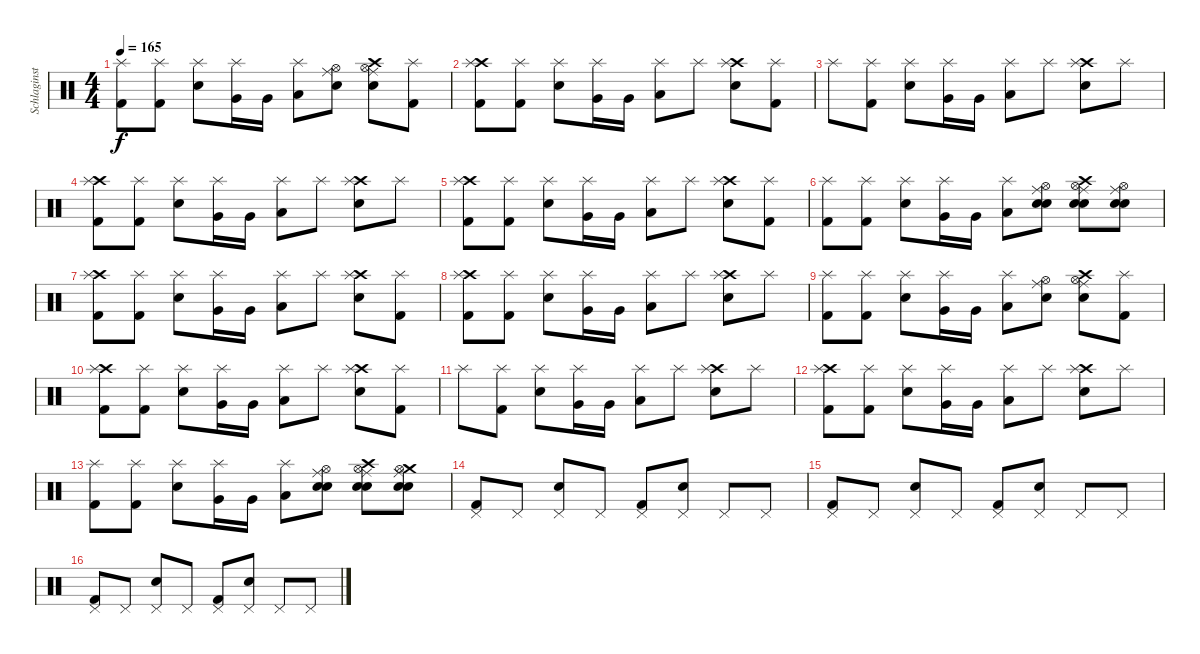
\track ("Schlaginstrumente - Auswahl" "Schlaginst") {instrument percussion}
\staff {score}
\articulation defaults
\ts (4 4)
\tempo 165
\clef neutral
\ks c
("Splash (hit)" "Kick (hit) 2").8{dy f} ("Splash (hit)" "Kick (hit) 2").8 ("Splash (hit)" "Electric Snare (hit)").8 ("Very Low Tom (hit)" "Splash (hit)").16 "Very Low Tom (hit)".16 ("Low Floor Tom (hit)" "Splash (hit)").8 ("Ride (middle)" "Hi-Hat (open)" "Electric Snare (hit)").8 ("Crash high (hit)" "Ride (middle)" "Hi-Hat (open)" "Electric Snare (hit)").8 ("Splash (hit)" "Kick (hit) 2").8 |
("Crash high (hit)" "Splash (hit)" "Kick (hit) 2").8 ("Splash (hit)" "Kick (hit) 2").8 ("Splash (hit)" "Electric Snare (hit)").8 ("Very Low Tom (hit)" "Splash (hit)").16 "Very Low Tom (hit)".16 ("Low Floor Tom (hit)" "Splash (hit)").8 "Splash (hit)".8 ("Crash high (hit)" "Splash (hit)" "Electric Snare (hit)").8 ("Splash (hit)" "Kick (hit) 2").8 |
"Splash (hit)".8 ("Splash (hit)" "Kick (hit) 2").8 ("Splash (hit)" "Electric Snare (hit)").8 ("Very Low Tom (hit)" "Splash (hit)").16 "Very Low Tom (hit)".16 ("Low Floor Tom (hit)" "Splash (hit)").8 "Splash (hit)".8 ("Crash high (hit)" "Splash (hit)" "Electric Snare (hit)").8 "Splash (hit)".8 |
("Crash high (hit)" "Splash (hit)" "Kick (hit) 2").8 ("Splash (hit)" "Kick (hit) 2").8 ("Splash (hit)" "Electric Snare (hit)").8 ("Very Low Tom (hit)" "Splash (hit)").16 "Very Low Tom (hit)".16 ("Low Floor Tom (hit)" "Splash (hit)").8 "Splash (hit)".8 ("Crash high (hit)" "Splash (hit)" "Electric Snare (hit)").8 "Splash (hit)".8 |
("Crash high (hit)" "Splash (hit)" "Kick (hit) 2").8 ("Splash (hit)" "Kick (hit) 2").8 ("Splash (hit)" "Electric Snare (hit)").8 ("Very Low Tom (hit)" "Splash (hit)").16 "Very Low Tom (hit)".16 ("Low Floor Tom (hit)" "Splash (hit)").8 "Splash (hit)".8 ("Crash high (hit)" "Splash (hit)" "Electric Snare (hit)").8 ("Splash (hit)" "Kick (hit) 2").8 |
("Splash (hit)" "Kick (hit) 2").8 ("Splash (hit)" "Kick (hit) 2").8 ("Splash (hit)" "Electric Snare (hit)").8 ("Very Low Tom (hit)" "Splash (hit)").16 "Very Low Tom (hit)".16 ("Low Floor Tom (hit)" "Splash (hit)").8 ("Ride (middle)" "Hand Clap (hit)" "Hi-Hat (open)" "Electric Snare (hit)").8 ("Crash high (hit)" "Ride (middle)" "Hand Clap (hit)" "Hi-Hat (open)" "Electric Snare (hit)").8 ("Ride (middle)" "Hand Clap (hit)" "Hi-Hat (open)" "Electric Snare (hit)").8 |
("Crash high (hit)" "Splash (hit)" "Kick (hit) 2").8 ("Splash (hit)" "Kick (hit) 2").8 ("Splash (hit)" "Electric Snare (hit)").8 ("Very Low Tom (hit)" "Splash (hit)").16 "Very Low Tom (hit)".16 ("Low Floor Tom (hit)" "Splash (hit)").8 "Splash (hit)".8 ("Crash high (hit)" "Splash (hit)" "Electric Snare (hit)").8 ("Splash (hit)" "Kick (hit) 2").8 |
("Crash high (hit)" "Splash (hit)" "Kick (hit) 2").8 ("Splash (hit)" "Kick (hit) 2").8 ("Splash (hit)" "Electric Snare (hit)").8 ("Very Low Tom (hit)" "Splash (hit)").16 "Very Low Tom (hit)".16 ("Low Floor Tom (hit)" "Splash (hit)").8 "Splash (hit)".8 ("Crash high (hit)" "Splash (hit)" "Electric Snare (hit)").8 "Splash (hit)".8 |
("Splash (hit)" "Kick (hit) 2").8 ("Splash (hit)" "Kick (hit) 2").8 ("Splash (hit)" "Electric Snare (hit)").8 ("Very Low Tom (hit)" "Splash (hit)").16 "Very Low Tom (hit)".16 ("Low Floor Tom (hit)" "Splash (hit)").8 ("Ride (middle)" "Hi-Hat (open)" "Electric Snare (hit)").8 ("Crash high (hit)" "Ride (middle)" "Hi-Hat (open)" "Electric Snare (hit)").8 ("Splash (hit)" "Kick (hit) 2").8 |
("Crash high (hit)" "Splash (hit)" "Kick (hit) 2").8 ("Splash (hit)" "Kick (hit) 2").8 ("Splash (hit)" "Electric Snare (hit)").8 ("Very Low Tom (hit)" "Splash (hit)").16 "Very Low Tom (hit)".16 ("Low Floor Tom (hit)" "Splash (hit)").8 "Splash (hit)".8 ("Crash high (hit)" "Splash (hit)" "Electric Snare (hit)").8 ("Splash (hit)" "Kick (hit) 2").8 |
"Splash (hit)".8 ("Splash (hit)" "Kick (hit) 2").8 ("Splash (hit)" "Electric Snare (hit)").8 ("Very Low Tom (hit)" "Splash (hit)").16 "Very Low Tom (hit)".16 ("Low Floor Tom (hit)" "Splash (hit)").8 "Splash (hit)".8 ("Crash high (hit)" "Splash (hit)" "Electric Snare (hit)").8 "Splash (hit)".8 |
("Crash high (hit)" "Splash (hit)" "Kick (hit) 2").8 ("Splash (hit)" "Kick (hit) 2").8 ("Splash (hit)" "Electric Snare (hit)").8 ("Very Low Tom (hit)" "Splash (hit)").16 "Very Low Tom (hit)".16 ("Low Floor Tom (hit)" "Splash (hit)").8 "Splash (hit)".8 ("Crash high (hit)" "Splash (hit)" "Electric Snare (hit)").8 "Splash (hit)".8 |
("Splash (hit)" "Kick (hit) 2").8 ("Splash (hit)" "Kick (hit) 2").8 ("Splash (hit)" "Electric Snare (hit)").8 ("Very Low Tom (hit)" "Splash (hit)").16 "Very Low Tom (hit)".16 ("Low Floor Tom (hit)" "Splash (hit)").8 ("Ride (middle)" "Hand Clap (hit)" "Hi-Hat (open)" "Electric Snare (hit)").8 ("Crash high (hit)" "Ride (middle)" "Hand Clap (hit)" "Hi-Hat (open)" "Electric Snare (hit)").8 ("Crash medium (hit)" "Ride (middle)" "Hand Clap (hit)" "Hi-Hat (open)" "Electric Snare (hit)").8 |
("Pedal Hi-Hat (hit)" "Kick (hit) 2").8 "Pedal Hi-Hat (hit)".8 ("Pedal Hi-Hat (hit)" "Electric Snare (hit)").8 "Pedal Hi-Hat (hit)".8 ("Pedal Hi-Hat (hit)" "Kick (hit) 2").8 ("Pedal Hi-Hat (hit)" "Electric Snare (hit)").8 "Pedal Hi-Hat (hit)".8 "Pedal Hi-Hat (hit)".8 |
("Pedal Hi-Hat (hit)" "Kick (hit) 2").8 "Pedal Hi-Hat (hit)".8 ("Pedal Hi-Hat (hit)" "Electric Snare (hit)").8 "Pedal Hi-Hat (hit)".8 ("Pedal Hi-Hat (hit)" "Kick (hit) 2").8 ("Pedal Hi-Hat (hit)" "Electric Snare (hit)").8 "Pedal Hi-Hat (hit)".8 "Pedal Hi-Hat (hit)".8 |
("Pedal Hi-Hat (hit)" "Kick (hit) 2").8 "Pedal Hi-Hat (hit)".8 ("Pedal Hi-Hat (hit)" "Electric Snare (hit)").8 "Pedal Hi-Hat (hit)".8 ("Pedal Hi-Hat (hit)" "Kick (hit) 2").8 ("Pedal Hi-Hat (hit)" "Electric Snare (hit)").8 "Pedal Hi-Hat (hit)".8 "Pedal Hi-Hat (hit)".8
